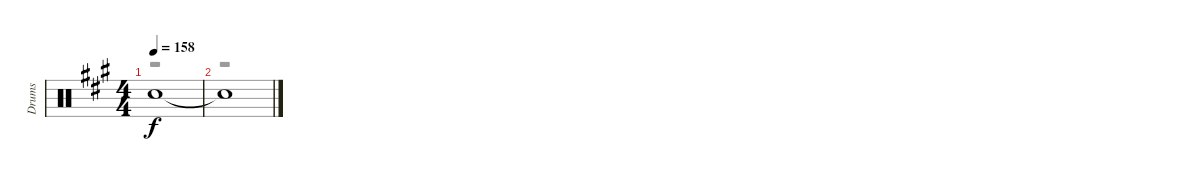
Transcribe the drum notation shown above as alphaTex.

\track ("Drums" "Drums") {instrument percussion}
\staff {score}
\articulation defaults
\voice
\ts (4 4)
\tempo 158
\clef neutral
\ks a "Snare (hit)"{t}.1{dy f}
|
"Snare (hit)"{t}.1
\voice
\clef neutral
\ottava regular
\simile none
\ks a
r.1{dy f} |
r.1
